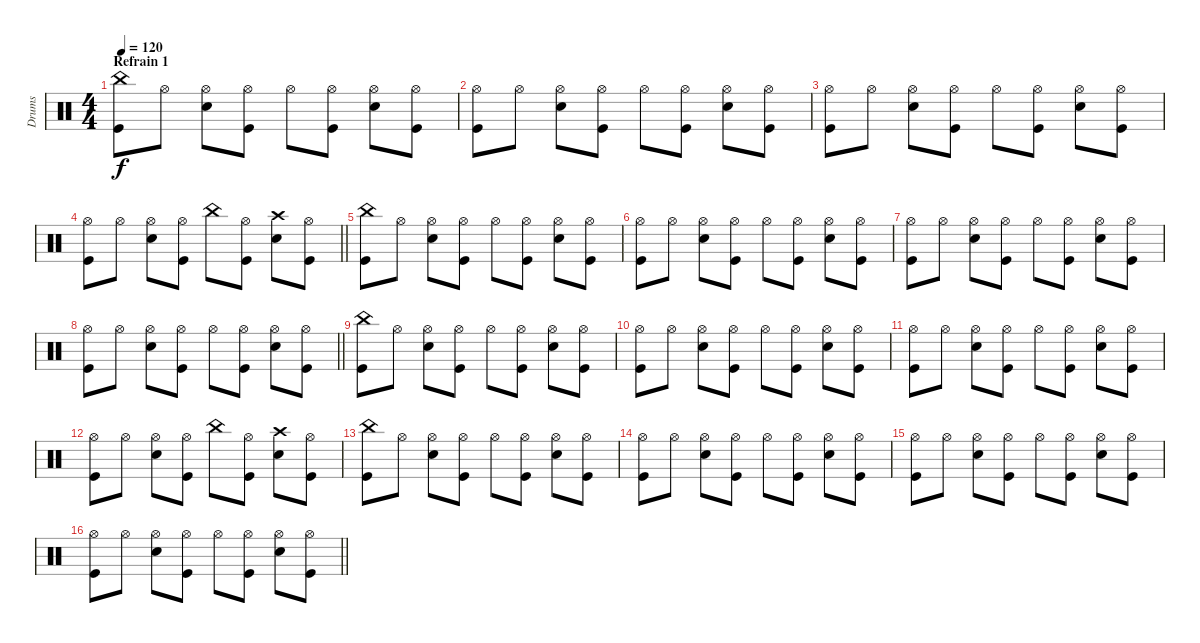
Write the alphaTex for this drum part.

\track ("Drums" "Drums") {instrument percussion}
\staff {score}
\articulation defaults
\ts (4 4)
\section ("" "Refrain 1")
\tempo 120
\clef neutral
\ks c
("China (hit)" "Kick (hit)").8{dy f} "Hi-Hat (open)".8 ("Hi-Hat (open)" "Electric Snare (hit)").8 ("Hi-Hat (open)" "Kick (hit)").8 "Hi-Hat (open)".8 ("Hi-Hat (open)" "Kick (hit)").8 ("Hi-Hat (open)" "Electric Snare (hit)").8 ("Hi-Hat (open)" "Kick (hit)").8 |
("Hi-Hat (open)" "Kick (hit)").8 "Hi-Hat (open)".8 ("Hi-Hat (open)" "Electric Snare (hit)").8 ("Hi-Hat (open)" "Kick (hit)").8 "Hi-Hat (open)".8 ("Hi-Hat (open)" "Kick (hit)").8 ("Hi-Hat (open)" "Electric Snare (hit)").8 ("Hi-Hat (open)" "Kick (hit)").8 |
("Hi-Hat (open)" "Kick (hit)").8 "Hi-Hat (open)".8 ("Hi-Hat (open)" "Electric Snare (hit)").8 ("Hi-Hat (open)" "Kick (hit)").8 "Hi-Hat (open)".8 ("Hi-Hat (open)" "Kick (hit)").8 ("Hi-Hat (open)" "Electric Snare (hit)").8 ("Hi-Hat (open)" "Kick (hit)").8 |
\barLineRight lightlight
("Hi-Hat (open)" "Kick (hit)").8 "Hi-Hat (open)".8 ("Hi-Hat (open)" "Electric Snare (hit)").8 ("Hi-Hat (open)" "Kick (hit)").8 "China (hit)".8 ("Hi-Hat (open)" "Kick (hit)").8 ("Crash high (hit)" "Electric Snare (hit)").8 ("Hi-Hat (open)" "Kick (hit)").8 |
("China (hit)" "Kick (hit)").8 "Hi-Hat (open)".8 ("Hi-Hat (open)" "Electric Snare (hit)").8 ("Hi-Hat (open)" "Kick (hit)").8 "Hi-Hat (open)".8 ("Hi-Hat (open)" "Kick (hit)").8 ("Hi-Hat (open)" "Electric Snare (hit)").8 ("Hi-Hat (open)" "Kick (hit)").8 |
("Hi-Hat (open)" "Kick (hit)").8 "Hi-Hat (open)".8 ("Hi-Hat (open)" "Electric Snare (hit)").8 ("Hi-Hat (open)" "Kick (hit)").8 "Hi-Hat (open)".8 ("Hi-Hat (open)" "Kick (hit)").8 ("Hi-Hat (open)" "Electric Snare (hit)").8 ("Hi-Hat (open)" "Kick (hit)").8 |
("Hi-Hat (open)" "Kick (hit)").8 "Hi-Hat (open)".8 ("Hi-Hat (open)" "Electric Snare (hit)").8 ("Hi-Hat (open)" "Kick (hit)").8 "Hi-Hat (open)".8 ("Hi-Hat (open)" "Kick (hit)").8 ("Hi-Hat (open)" "Electric Snare (hit)").8 ("Hi-Hat (open)" "Kick (hit)").8 |
\barLineRight lightlight
("Hi-Hat (open)" "Kick (hit)").8 "Hi-Hat (open)".8 ("Hi-Hat (open)" "Electric Snare (hit)").8 ("Hi-Hat (open)" "Kick (hit)").8 "Hi-Hat (open)".8 ("Hi-Hat (open)" "Kick (hit)").8 ("Hi-Hat (open)" "Electric Snare (hit)").8 ("Hi-Hat (open)" "Kick (hit)").8 |
("China (hit)" "Kick (hit)").8 "Hi-Hat (open)".8 ("Hi-Hat (open)" "Electric Snare (hit)").8 ("Hi-Hat (open)" "Kick (hit)").8 "Hi-Hat (open)".8 ("Hi-Hat (open)" "Kick (hit)").8 ("Hi-Hat (open)" "Electric Snare (hit)").8 ("Hi-Hat (open)" "Kick (hit)").8 |
("Hi-Hat (open)" "Kick (hit)").8 "Hi-Hat (open)".8 ("Hi-Hat (open)" "Electric Snare (hit)").8 ("Hi-Hat (open)" "Kick (hit)").8 "Hi-Hat (open)".8 ("Hi-Hat (open)" "Kick (hit)").8 ("Hi-Hat (open)" "Electric Snare (hit)").8 ("Hi-Hat (open)" "Kick (hit)").8 |
("Hi-Hat (open)" "Kick (hit)").8 "Hi-Hat (open)".8 ("Hi-Hat (open)" "Electric Snare (hit)").8 ("Hi-Hat (open)" "Kick (hit)").8 "Hi-Hat (open)".8 ("Hi-Hat (open)" "Kick (hit)").8 ("Hi-Hat (open)" "Electric Snare (hit)").8 ("Hi-Hat (open)" "Kick (hit)").8 |
("Hi-Hat (open)" "Kick (hit)").8 "Hi-Hat (open)".8 ("Hi-Hat (open)" "Electric Snare (hit)").8 ("Hi-Hat (open)" "Kick (hit)").8 "China (hit)".8 ("Hi-Hat (open)" "Kick (hit)").8 ("Crash high (hit)" "Electric Snare (hit)").8 ("Hi-Hat (open)" "Kick (hit)").8 |
("China (hit)" "Kick (hit)").8 "Hi-Hat (open)".8 ("Hi-Hat (open)" "Electric Snare (hit)").8 ("Hi-Hat (open)" "Kick (hit)").8 "Hi-Hat (open)".8 ("Hi-Hat (open)" "Kick (hit)").8 ("Hi-Hat (open)" "Electric Snare (hit)").8 ("Hi-Hat (open)" "Kick (hit)").8 |
("Hi-Hat (open)" "Kick (hit)").8 "Hi-Hat (open)".8 ("Hi-Hat (open)" "Electric Snare (hit)").8 ("Hi-Hat (open)" "Kick (hit)").8 "Hi-Hat (open)".8 ("Hi-Hat (open)" "Kick (hit)").8 ("Hi-Hat (open)" "Electric Snare (hit)").8 ("Hi-Hat (open)" "Kick (hit)").8 |
("Hi-Hat (open)" "Kick (hit)").8 "Hi-Hat (open)".8 ("Hi-Hat (open)" "Electric Snare (hit)").8 ("Hi-Hat (open)" "Kick (hit)").8 "Hi-Hat (open)".8 ("Hi-Hat (open)" "Kick (hit)").8 ("Hi-Hat (open)" "Electric Snare (hit)").8 ("Hi-Hat (open)" "Kick (hit)").8 |
\barLineRight lightlight
("Hi-Hat (open)" "Kick (hit)").8 "Hi-Hat (open)".8 ("Hi-Hat (open)" "Electric Snare (hit)").8 ("Hi-Hat (open)" "Kick (hit)").8 "Hi-Hat (open)".8 ("Hi-Hat (open)" "Kick (hit)").8 ("Hi-Hat (open)" "Electric Snare (hit)").8 ("Hi-Hat (open)" "Kick (hit)").8
